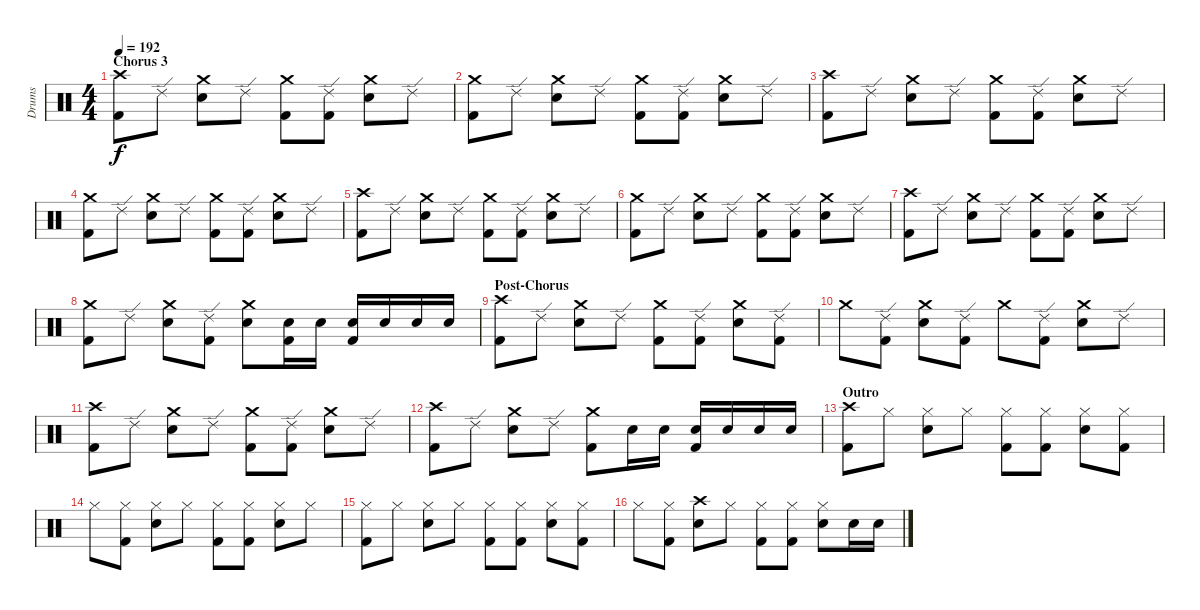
\track ("Drums" "Drums") {instrument percussion}
\staff {score}
\articulation defaults
\ts (4 4)
\section ("" "Chorus 3")
\tempo 192
\clef neutral
\ks c
("Crash high (hit)" "Kick (hit) 2").8{dy f} "Ride (edge) 2".8 ("Crash medium (hit)" "Electric Snare (hit)").8 "Ride (edge) 2".8 ("Crash medium (hit)" "Kick (hit) 2").8 ("Ride (edge) 2" "Kick (hit) 2").8 ("Crash medium (hit)" "Electric Snare (hit)").8 "Ride (edge) 2".8 |
("Crash medium (hit)" "Kick (hit) 2").8 "Ride (edge) 2".8 ("Crash medium (hit)" "Electric Snare (hit)").8 "Ride (edge) 2".8 ("Crash medium (hit)" "Kick (hit) 2").8 ("Ride (edge) 2" "Kick (hit) 2").8 ("Crash medium (hit)" "Electric Snare (hit)").8 "Ride (edge) 2".8 |
("Crash high (hit)" "Kick (hit) 2").8 "Ride (edge) 2".8 ("Crash medium (hit)" "Electric Snare (hit)").8 "Ride (edge) 2".8 ("Crash medium (hit)" "Kick (hit) 2").8 ("Ride (edge) 2" "Kick (hit) 2").8 ("Crash medium (hit)" "Electric Snare (hit)").8 "Ride (edge) 2".8 |
("Crash medium (hit)" "Kick (hit) 2").8 "Ride (edge) 2".8 ("Crash medium (hit)" "Electric Snare (hit)").8 "Ride (edge) 2".8 ("Crash medium (hit)" "Kick (hit) 2").8 ("Ride (edge) 2" "Kick (hit) 2").8 ("Crash medium (hit)" "Electric Snare (hit)").8 "Ride (edge) 2".8 |
("Crash high (hit)" "Kick (hit) 2").8 "Ride (edge) 2".8 ("Crash medium (hit)" "Electric Snare (hit)").8 "Ride (edge) 2".8 ("Crash medium (hit)" "Kick (hit) 2").8 ("Ride (edge) 2" "Kick (hit) 2").8 ("Crash medium (hit)" "Electric Snare (hit)").8 "Ride (edge) 2".8 |
("Crash medium (hit)" "Kick (hit) 2").8 "Ride (edge) 2".8 ("Crash medium (hit)" "Electric Snare (hit)").8 "Ride (edge) 2".8 ("Crash medium (hit)" "Kick (hit) 2").8 ("Ride (edge) 2" "Kick (hit) 2").8 ("Crash medium (hit)" "Electric Snare (hit)").8 "Ride (edge) 2".8 |
("Crash high (hit)" "Kick (hit) 2").8 "Ride (edge) 2".8 ("Crash medium (hit)" "Electric Snare (hit)").8 "Ride (edge) 2".8 ("Crash medium (hit)" "Kick (hit) 2").8 ("Ride (edge) 2" "Kick (hit) 2").8 ("Crash medium (hit)" "Electric Snare (hit)").8 "Ride (edge) 2".8 |
("Crash medium (hit)" "Kick (hit) 2").8 "Ride (edge) 2".8 ("Crash medium (hit)" "Electric Snare (hit)").8 ("Ride (edge) 2" "Kick (hit) 2").8 ("Crash medium (hit)" "Electric Snare (hit)").8 ("Electric Snare (hit)" "Kick (hit) 2").16 "Electric Snare (hit)".16 ("Electric Snare (hit)" "Kick (hit) 2").16 "Electric Snare (hit)".16 "Electric Snare (hit)".16 "Electric Snare (hit)".16 |
\section ("" "Post-Chorus")
("Crash high (hit)" "Kick (hit) 2").8 "Ride (edge) 2".8 ("Crash medium (hit)" "Electric Snare (hit)").8 "Ride (edge) 2".8 ("Crash medium (hit)" "Kick (hit) 2").8 ("Ride (edge) 2" "Kick (hit) 2").8 ("Crash medium (hit)" "Electric Snare (hit)").8 ("Ride (edge) 2" "Kick (hit) 2").8 |
"Crash medium (hit)".8 ("Ride (edge) 2" "Kick (hit) 2").8 ("Crash medium (hit)" "Electric Snare (hit)").8 ("Ride (edge) 2" "Kick (hit) 2").8 "Crash medium (hit)".8 ("Ride (edge) 2" "Kick (hit) 2").8 ("Crash medium (hit)" "Electric Snare (hit)").8 "Ride (edge) 2".8 |
("Crash high (hit)" "Kick (hit) 2").8 "Ride (edge) 2".8 ("Crash medium (hit)" "Electric Snare (hit)").8 "Ride (edge) 2".8 ("Crash medium (hit)" "Kick (hit) 2").8 ("Ride (edge) 2" "Kick (hit) 2").8 ("Crash medium (hit)" "Electric Snare (hit)").8 "Ride (edge) 2".8 |
("Crash high (hit)" "Kick (hit) 2").8 "Ride (edge) 2".8 ("Crash medium (hit)" "Electric Snare (hit)").8 "Ride (edge) 2".8 ("Crash medium (hit)" "Kick (hit) 2").8 "Electric Snare (hit)".16 "Electric Snare (hit)".16 ("Electric Snare (hit)" "Kick (hit) 2").16 "Electric Snare (hit)".16 "Electric Snare (hit)".16 "Electric Snare (hit)".16 |
\section ("" "Outro")
("Crash high (hit)" "Kick (hit) 2").8 "Hi-Hat (closed)".8 ("Hi-Hat (closed)" "Electric Snare (hit)").8 "Hi-Hat (closed)".8 ("Hi-Hat (closed)" "Kick (hit) 2").8 ("Hi-Hat (closed)" "Kick (hit) 2").8 ("Hi-Hat (closed)" "Electric Snare (hit)").8 ("Hi-Hat (closed)" "Kick (hit) 2").8 |
"Hi-Hat (closed)".8 ("Hi-Hat (closed)" "Kick (hit) 2").8 ("Hi-Hat (closed)" "Electric Snare (hit)").8 "Hi-Hat (closed)".8 ("Hi-Hat (closed)" "Kick (hit) 2").8 ("Hi-Hat (closed)" "Kick (hit) 2").8 ("Hi-Hat (closed)" "Electric Snare (hit)").8 "Hi-Hat (closed)".8 |
("Hi-Hat (closed)" "Kick (hit) 2").8 "Hi-Hat (closed)".8 ("Hi-Hat (closed)" "Electric Snare (hit)").8 "Hi-Hat (closed)".8 ("Hi-Hat (closed)" "Kick (hit) 2").8 ("Hi-Hat (closed)" "Kick (hit) 2").8 ("Hi-Hat (closed)" "Electric Snare (hit)").8 ("Hi-Hat (closed)" "Kick (hit) 2").8 |
"Hi-Hat (closed)".8 ("Hi-Hat (closed)" "Kick (hit) 2").8 ("Crash high (hit)" "Electric Snare (hit)").8 "Hi-Hat (closed)".8 ("Hi-Hat (closed)" "Kick (hit) 2").8 ("Hi-Hat (closed)" "Kick (hit) 2").8 ("Hi-Hat (closed)" "Electric Snare (hit)").8 "Electric Snare (hit)".16 "Electric Snare (hit)".16
